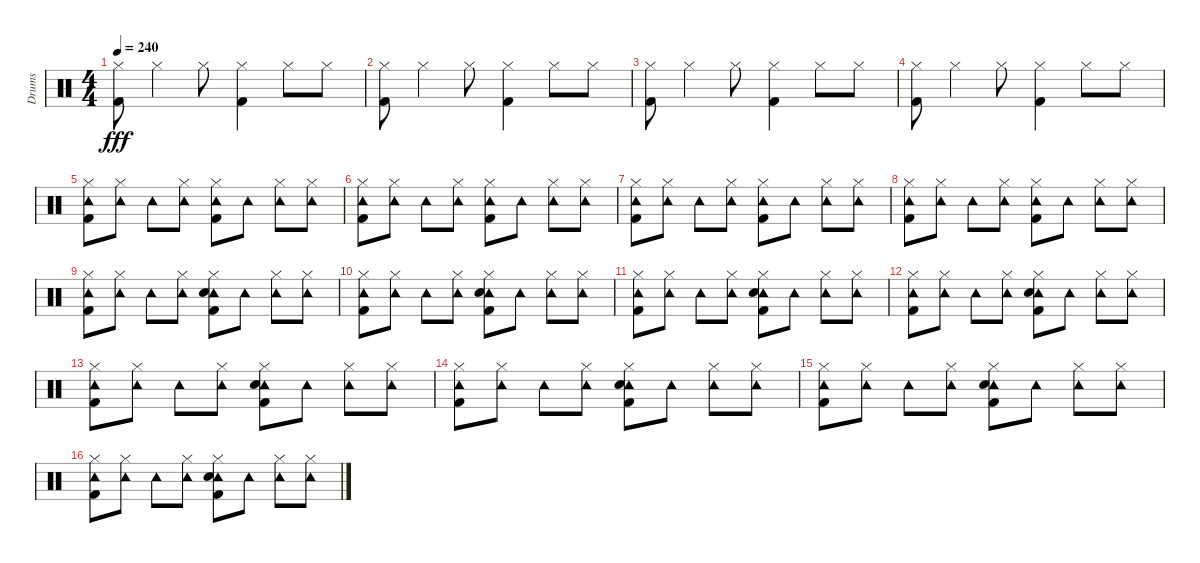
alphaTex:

\track ("Drums" "Drums") {instrument percussion}
\staff {score}
\articulation defaults
\ts (4 4)
\tempo 240
\clef neutral
\ks c
("Hi-Hat (closed)" "Kick (hit) 2").8{dy fff} "Hi-Hat (closed)".4 "Hi-Hat (closed)".8 ("Hi-Hat (closed)" "Kick (hit) 2").4 "Hi-Hat (closed)".8 "Hi-Hat (closed)".8 |
("Hi-Hat (closed)" "Kick (hit) 2").8 "Hi-Hat (closed)".4 "Hi-Hat (closed)".8 ("Hi-Hat (closed)" "Kick (hit) 2").4 "Hi-Hat (closed)".8 "Hi-Hat (closed)".8 |
("Hi-Hat (closed)" "Kick (hit) 2").8 "Hi-Hat (closed)".4 "Hi-Hat (closed)".8 ("Hi-Hat (closed)" "Kick (hit) 2").4 "Hi-Hat (closed)".8 "Hi-Hat (closed)".8 |
("Hi-Hat (closed)" "Kick (hit) 2").8 "Hi-Hat (closed)".4 "Hi-Hat (closed)".8 ("Hi-Hat (closed)" "Kick (hit) 2").4 "Hi-Hat (closed)".8 "Hi-Hat (closed)".8 |
("Tambourine (hit)" "Hi-Hat (closed)" "Kick (hit) 2").8 ("Tambourine (hit)" "Hi-Hat (closed)").8 "Tambourine (hit)".8 ("Tambourine (hit)" "Hi-Hat (closed)").8 ("Tambourine (hit)" "Hi-Hat (closed)" "Kick (hit) 2").8 "Tambourine (hit)".8 ("Tambourine (hit)" "Hi-Hat (closed)").8 ("Tambourine (hit)" "Hi-Hat (closed)").8 |
("Tambourine (hit)" "Hi-Hat (closed)" "Kick (hit) 2").8 ("Tambourine (hit)" "Hi-Hat (closed)").8 "Tambourine (hit)".8 ("Tambourine (hit)" "Hi-Hat (closed)").8 ("Tambourine (hit)" "Hi-Hat (closed)" "Kick (hit) 2").8 "Tambourine (hit)".8 ("Tambourine (hit)" "Hi-Hat (closed)").8 ("Tambourine (hit)" "Hi-Hat (closed)").8 |
("Tambourine (hit)" "Hi-Hat (closed)" "Kick (hit) 2").8 ("Tambourine (hit)" "Hi-Hat (closed)").8 "Tambourine (hit)".8 ("Tambourine (hit)" "Hi-Hat (closed)").8 ("Tambourine (hit)" "Hi-Hat (closed)" "Kick (hit) 2").8 "Tambourine (hit)".8 ("Tambourine (hit)" "Hi-Hat (closed)").8 ("Tambourine (hit)" "Hi-Hat (closed)").8 |
("Tambourine (hit)" "Hi-Hat (closed)" "Kick (hit) 2").8 ("Tambourine (hit)" "Hi-Hat (closed)").8 "Tambourine (hit)".8 ("Tambourine (hit)" "Hi-Hat (closed)").8 ("Tambourine (hit)" "Hi-Hat (closed)" "Kick (hit) 2").8 "Tambourine (hit)".8 ("Tambourine (hit)" "Hi-Hat (closed)").8 ("Tambourine (hit)" "Hi-Hat (closed)").8 |
("Tambourine (hit)" "Hi-Hat (closed)" "Kick (hit) 2").8 ("Tambourine (hit)" "Hi-Hat (closed)").8 "Tambourine (hit)".8 ("Tambourine (hit)" "Hi-Hat (closed)").8 ("Tambourine (hit)" "Hi-Hat (closed)" "Snare (hit) 2" "Kick (hit) 2").8 "Tambourine (hit)".8 ("Tambourine (hit)" "Hi-Hat (closed)").8 ("Tambourine (hit)" "Hi-Hat (closed)").8 |
("Tambourine (hit)" "Hi-Hat (closed)" "Kick (hit) 2").8 ("Tambourine (hit)" "Hi-Hat (closed)").8 "Tambourine (hit)".8 ("Tambourine (hit)" "Hi-Hat (closed)").8 ("Tambourine (hit)" "Hi-Hat (closed)" "Snare (hit) 2" "Kick (hit) 2").8 "Tambourine (hit)".8 ("Tambourine (hit)" "Hi-Hat (closed)").8 ("Tambourine (hit)" "Hi-Hat (closed)").8 |
("Tambourine (hit)" "Hi-Hat (closed)" "Kick (hit) 2").8 ("Tambourine (hit)" "Hi-Hat (closed)").8 "Tambourine (hit)".8 ("Tambourine (hit)" "Hi-Hat (closed)").8 ("Tambourine (hit)" "Hi-Hat (closed)" "Snare (hit) 2" "Kick (hit) 2").8 "Tambourine (hit)".8 ("Tambourine (hit)" "Hi-Hat (closed)").8 ("Tambourine (hit)" "Hi-Hat (closed)").8 |
("Tambourine (hit)" "Hi-Hat (closed)" "Kick (hit) 2").8 ("Tambourine (hit)" "Hi-Hat (closed)").8 "Tambourine (hit)".8 ("Tambourine (hit)" "Hi-Hat (closed)").8 ("Tambourine (hit)" "Hi-Hat (closed)" "Snare (hit) 2" "Kick (hit) 2").8 "Tambourine (hit)".8 ("Tambourine (hit)" "Hi-Hat (closed)").8 ("Tambourine (hit)" "Hi-Hat (closed)").8 |
("Tambourine (hit)" "Hi-Hat (closed)" "Kick (hit) 2").8 ("Tambourine (hit)" "Hi-Hat (closed)").8 "Tambourine (hit)".8 ("Tambourine (hit)" "Hi-Hat (closed)").8 ("Tambourine (hit)" "Hi-Hat (closed)" "Snare (hit) 2" "Kick (hit) 2").8 "Tambourine (hit)".8 ("Tambourine (hit)" "Hi-Hat (closed)").8 ("Tambourine (hit)" "Hi-Hat (closed)").8 |
("Tambourine (hit)" "Hi-Hat (closed)" "Kick (hit) 2").8 ("Tambourine (hit)" "Hi-Hat (closed)").8 "Tambourine (hit)".8 ("Tambourine (hit)" "Hi-Hat (closed)").8 ("Tambourine (hit)" "Hi-Hat (closed)" "Snare (hit) 2" "Kick (hit) 2").8 "Tambourine (hit)".8 ("Tambourine (hit)" "Hi-Hat (closed)").8 ("Tambourine (hit)" "Hi-Hat (closed)").8 |
("Tambourine (hit)" "Hi-Hat (closed)" "Kick (hit) 2").8 ("Tambourine (hit)" "Hi-Hat (closed)").8 "Tambourine (hit)".8 ("Tambourine (hit)" "Hi-Hat (closed)").8 ("Tambourine (hit)" "Hi-Hat (closed)" "Snare (hit) 2" "Kick (hit) 2").8 "Tambourine (hit)".8 ("Tambourine (hit)" "Hi-Hat (closed)").8 ("Tambourine (hit)" "Hi-Hat (closed)").8 |
("Tambourine (hit)" "Hi-Hat (closed)" "Kick (hit) 2").8 ("Tambourine (hit)" "Hi-Hat (closed)").8 "Tambourine (hit)".8 ("Tambourine (hit)" "Hi-Hat (closed)").8 ("Tambourine (hit)" "Hi-Hat (closed)" "Snare (hit) 2" "Kick (hit) 2").8 "Tambourine (hit)".8 ("Tambourine (hit)" "Hi-Hat (closed)").8 ("Tambourine (hit)" "Hi-Hat (closed)").8
